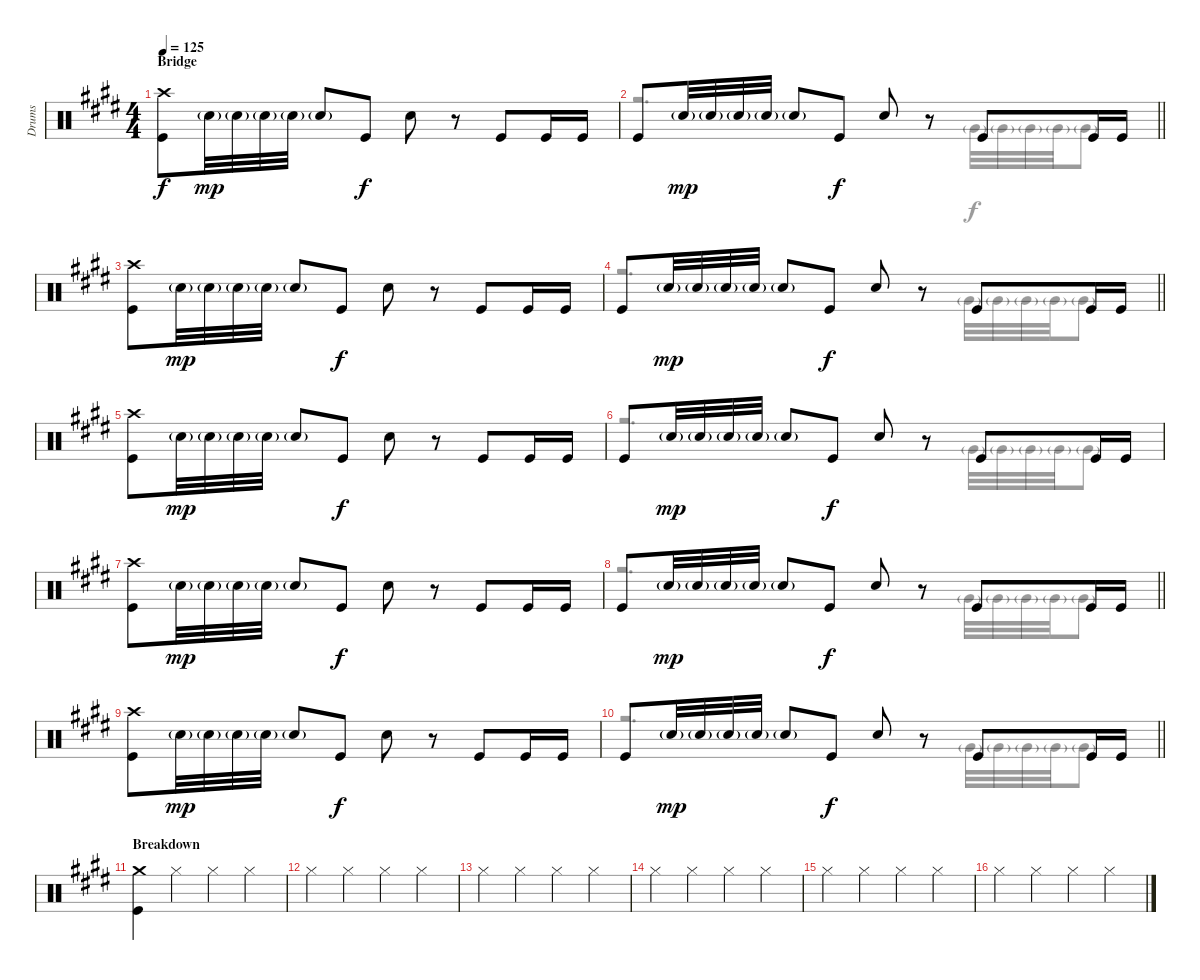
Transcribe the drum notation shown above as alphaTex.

\track ("Drums" "Drums") {instrument percussion}
\staff {score}
\articulation defaults
\voice
\ts (4 4)
\section ("" "Bridge")
\tempo 125
\clef neutral
\ks c#minor
("Crash high (hit)" "Kick (hit)").8{dy f} "Electric Snare (hit)"{g}.32{dy mp} "Electric Snare (hit)"{g}.32 "Electric Snare (hit)"{g}.32 "Electric Snare (hit)"{g}.32 "Electric Snare (hit)"{g}.8 "Kick (hit)".8{dy f} "Electric Snare (hit)".8 r.8 "Kick (hit)".8 "Kick (hit)".16 "Kick (hit)".16 |
\barLineRight lightlight "Kick (hit)".8 "Electric Snare (hit)"{g}.32{dy mp} "Electric Snare (hit)"{g}.32 "Electric Snare (hit)"{g}.32 "Electric Snare (hit)"{g}.32 "Electric Snare (hit)"{g}.8 "Kick (hit)".8{dy f} "Electric Snare (hit)".8
r.8 "Kick (hit)".8 "Kick (hit)".16 "Kick (hit)".16 |
("Crash high (hit)" "Kick (hit)").8 "Electric Snare (hit)"{g}.32{dy mp} "Electric Snare (hit)"{g}.32 "Electric Snare (hit)"{g}.32 "Electric Snare (hit)"{g}.32 "Electric Snare (hit)"{g}.8 "Kick (hit)".8{dy f} "Electric Snare (hit)".8 r.8 "Kick (hit)".8 "Kick (hit)".16 "Kick (hit)".16 |
\barLineRight lightlight "Kick (hit)".8 "Electric Snare (hit)"{g}.32{dy mp} "Electric Snare (hit)"{g}.32 "Electric Snare (hit)"{g}.32 "Electric Snare (hit)"{g}.32 "Electric Snare (hit)"{g}.8 "Kick (hit)".8{dy f} "Electric Snare (hit)".8
r.8 "Kick (hit)".8 "Kick (hit)".16 "Kick (hit)".16 |
("Crash high (hit)" "Kick (hit)").8 "Electric Snare (hit)"{g}.32{dy mp} "Electric Snare (hit)"{g}.32 "Electric Snare (hit)"{g}.32 "Electric Snare (hit)"{g}.32 "Electric Snare (hit)"{g}.8 "Kick (hit)".8{dy f} "Electric Snare (hit)".8 r.8 "Kick (hit)".8 "Kick (hit)".16 "Kick (hit)".16 |
"Kick (hit)".8 "Electric Snare (hit)"{g}.32{dy mp} "Electric Snare (hit)"{g}.32 "Electric Snare (hit)"{g}.32 "Electric Snare (hit)"{g}.32 "Electric Snare (hit)"{g}.8 "Kick (hit)".8{dy f} "Electric Snare (hit)".8 r.8 "Kick (hit)".8 "Kick (hit)".16 "Kick (hit)".16 |
("Crash high (hit)" "Kick (hit)").8 "Electric Snare (hit)"{g}.32{dy mp} "Electric Snare (hit)"{g}.32 "Electric Snare (hit)"{g}.32 "Electric Snare (hit)"{g}.32 "Electric Snare (hit)"{g}.8 "Kick (hit)".8{dy f} "Electric Snare (hit)".8 r.8 "Kick (hit)".8 "Kick (hit)".16 "Kick (hit)".16 |
\barLineRight lightlight "Kick (hit)".8 "Electric Snare (hit)"{g}.32{dy mp} "Electric Snare (hit)"{g}.32 "Electric Snare (hit)"{g}.32 "Electric Snare (hit)"{g}.32 "Electric Snare (hit)"{g}.8 "Kick (hit)".8{dy f} "Electric Snare (hit)".8
r.8 "Kick (hit)".8 "Kick (hit)".16 "Kick (hit)".16 |
("Crash high (hit)" "Kick (hit)").8 "Electric Snare (hit)"{g}.32{dy mp} "Electric Snare (hit)"{g}.32 "Electric Snare (hit)"{g}.32 "Electric Snare (hit)"{g}.32 "Electric Snare (hit)"{g}.8 "Kick (hit)".8{dy f} "Electric Snare (hit)".8 r.8 "Kick (hit)".8 "Kick (hit)".16 "Kick (hit)".16 |
\barLineRight lightlight "Kick (hit)".8 "Electric Snare (hit)"{g}.32{dy mp} "Electric Snare (hit)"{g}.32 "Electric Snare (hit)"{g}.32 "Electric Snare (hit)"{g}.32 "Electric Snare (hit)"{g}.8 "Kick (hit)".8{dy f} "Electric Snare (hit)".8
r.8 "Kick (hit)".8 "Kick (hit)".16 "Kick (hit)".16 |
\section ("" "Breakdown")
("Crash medium (hit)" "Kick (hit)").4 "Hi-Hat (closed)".4 "Hi-Hat (closed)".4 "Hi-Hat (closed)".4 |
"Hi-Hat (closed)".4 "Hi-Hat (closed)".4 "Hi-Hat (closed)".4 "Hi-Hat (closed)".4 |
"Hi-Hat (closed)".4 "Hi-Hat (closed)".4 "Hi-Hat (closed)".4 "Hi-Hat (closed)".4 |
"Hi-Hat (closed)".4 "Hi-Hat (closed)".4 "Hi-Hat (closed)".4 "Hi-Hat (closed)".4 |
"Hi-Hat (closed)".4 "Hi-Hat (closed)".4 "Hi-Hat (closed)".4 "Hi-Hat (closed)".4 |
"Hi-Hat (closed)".4 "Hi-Hat (closed)".4 "Hi-Hat (closed)".4 "Hi-Hat (closed)".4
\voice
\clef neutral
\ottava regular
\simile none
\ks c#minor
|
\barLineRight lightlight
r.2{d} "Very Low Tom (hit)"{g}.32 "Very Low Tom (hit)"{g}.32 "Very Low Tom (hit)"{g}.32 "Very Low Tom (hit)"{g}.32 "Very Low Tom (hit)"{g}.8 |
|
\barLineRight lightlight
r.2{d} "Very Low Tom (hit)"{g}.32 "Very Low Tom (hit)"{g}.32 "Very Low Tom (hit)"{g}.32 "Very Low Tom (hit)"{g}.32 "Very Low Tom (hit)"{g}.8 |
|
r.2{d} "Very Low Tom (hit)"{g}.32 "Very Low Tom (hit)"{g}.32 "Very Low Tom (hit)"{g}.32 "Very Low Tom (hit)"{g}.32 "Very Low Tom (hit)"{g}.8 |
|
\barLineRight lightlight
r.2{d} "Very Low Tom (hit)"{g}.32 "Very Low Tom (hit)"{g}.32 "Very Low Tom (hit)"{g}.32 "Very Low Tom (hit)"{g}.32 "Very Low Tom (hit)"{g}.8 |
|
\barLineRight lightlight
r.2{d} "Very Low Tom (hit)"{g}.32 "Very Low Tom (hit)"{g}.32 "Very Low Tom (hit)"{g}.32 "Very Low Tom (hit)"{g}.32 "Very Low Tom (hit)"{g}.8 |
|
|
|
|
|
